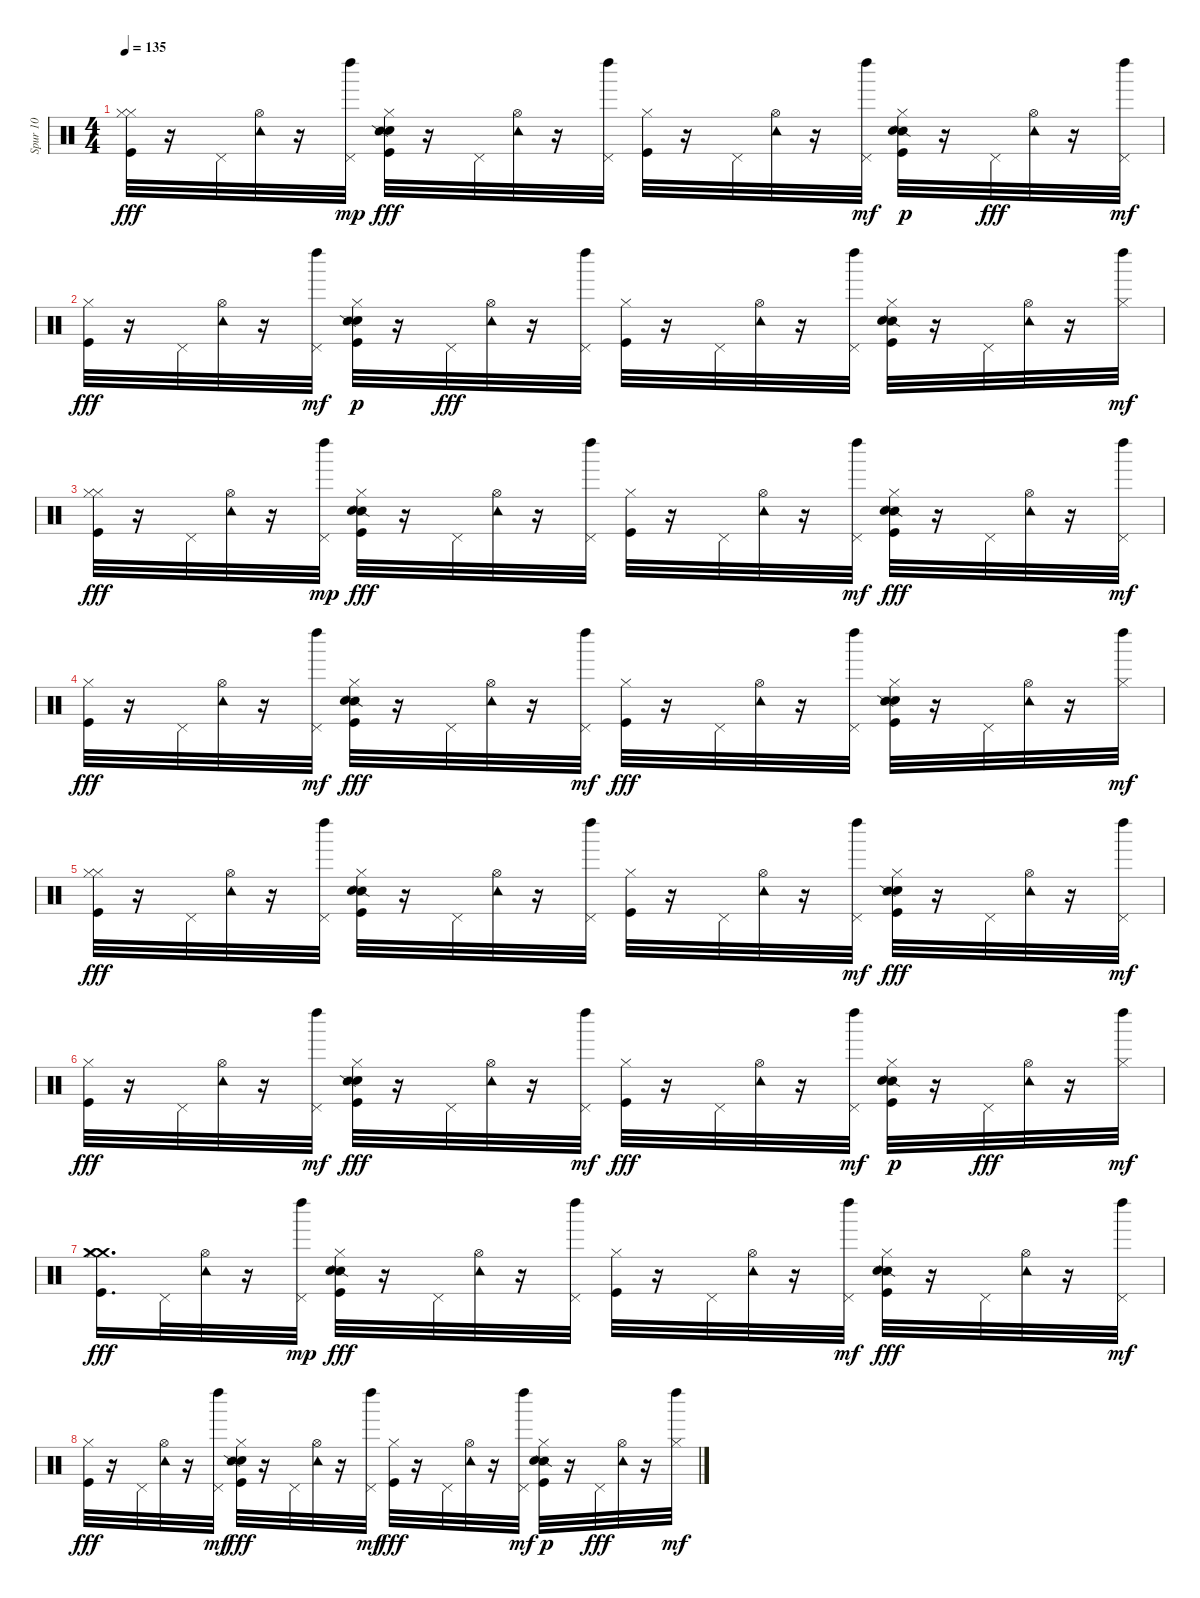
\track ("Spur 10" "Spur 10") {instrument percussion}
\staff {score}
\articulation defaults
\ts (4 4)
\tempo 135
\clef neutral
\ks c
("Kick (hit)" "Hi-Hat (closed)" "Hi-Hat (closed)").32{dy fff} r.16 "Pedal Hi-Hat (hit)".32 ("Tambourine (hit)" "Hi-Hat (open)").32 r.16 ("Pedal Hi-Hat (hit)" "Left Maraca (hit)").32{dy mp} ("Hand Clap (hit)" "Kick (hit)" "Hi-Hat (closed)" "Snare (side stick) 2").32{dy fff} r.16 "Pedal Hi-Hat (hit)".32 ("Tambourine (hit)" "Hi-Hat (open)").32 r.16 ("Left Maraca (hit)" "Pedal Hi-Hat (hit)").32 ("Kick (hit)" "Hi-Hat (closed)").32 r.16 "Pedal Hi-Hat (hit)".32 ("Tambourine (hit)" "Hi-Hat (open)").32 r.16 ("Left Maraca (hit)" "Pedal Hi-Hat (hit)").32{dy mf} ("Hi-Hat (closed)" "Snare (side stick) 2" "Kick (hit)" "Hand Clap (hit)").32{dy p} r.16 "Pedal Hi-Hat (hit)".32{dy fff} ("Hi-Hat (open)" "Tambourine (hit)").32 r.16 ("Pedal Hi-Hat (hit)" "Left Maraca (hit)").32{dy mf} |
("Kick (hit)" "Hi-Hat (closed)").32{dy fff} r.16 "Pedal Hi-Hat (hit)".32 ("Tambourine (hit)" "Hi-Hat (open)").32 r.16 ("Pedal Hi-Hat (hit)" "Left Maraca (hit)").32{dy mf} ("Kick (hit)" "Hi-Hat (closed)" "Hand Clap (hit)" "Snare (side stick) 2").32{dy p} r.16 "Pedal Hi-Hat (hit)".32{dy fff} ("Tambourine (hit)" "Hi-Hat (open)").32 r.16 ("Left Maraca (hit)" "Pedal Hi-Hat (hit)").32 ("Kick (hit)" "Hi-Hat (closed)").32 r.16 "Pedal Hi-Hat (hit)".32 ("Hi-Hat (open)" "Tambourine (hit)").32 r.16 ("Left Maraca (hit)" "Pedal Hi-Hat (hit)").32 ("Hi-Hat (closed)" "Snare (side stick) 2" "Hand Clap (hit)" "Kick (hit)").32 r.16 "Pedal Hi-Hat (hit)".32 ("Hi-Hat (open)" "Tambourine (hit)").32 r.16 ("Left Maraca (hit)" "Hi-Hat (closed)").32{dy mf} |
("Hi-Hat (closed)" "Kick (hit)" "Hi-Hat (closed)").32{dy fff} r.16 "Pedal Hi-Hat (hit)".32 ("Tambourine (hit)" "Hi-Hat (open)").32 r.16 ("Pedal Hi-Hat (hit)" "Left Maraca (hit)").32{dy mp} ("Hi-Hat (closed)" "Snare (side stick) 2" "Hand Clap (hit)" "Kick (hit)").32{dy fff} r.16 "Pedal Hi-Hat (hit)".32 ("Tambourine (hit)" "Hi-Hat (open)").32 r.16 ("Left Maraca (hit)" "Pedal Hi-Hat (hit)").32 ("Kick (hit)" "Hi-Hat (closed)").32 r.16 "Pedal Hi-Hat (hit)".32 ("Hi-Hat (open)" "Tambourine (hit)").32 r.16 ("Pedal Hi-Hat (hit)" "Left Maraca (hit)").32{dy mf} ("Hi-Hat (closed)" "Snare (side stick) 2" "Hand Clap (hit)" "Kick (hit)").32{dy fff} r.16 "Pedal Hi-Hat (hit)".32 ("Tambourine (hit)" "Hi-Hat (open)").32 r.16 ("Left Maraca (hit)" "Pedal Hi-Hat (hit)").32{dy mf} |
("Kick (hit)" "Hi-Hat (closed)").32{dy fff} r.16 "Pedal Hi-Hat (hit)".32 ("Tambourine (hit)" "Hi-Hat (open)").32 r.16 ("Pedal Hi-Hat (hit)" "Left Maraca (hit)").32{dy mf} ("Snare (side stick) 2" "Hand Clap (hit)" "Kick (hit)" "Hi-Hat (closed)").32{dy fff} r.16 "Pedal Hi-Hat (hit)".32 ("Hi-Hat (open)" "Tambourine (hit)").32 r.16 ("Pedal Hi-Hat (hit)" "Left Maraca (hit)").32{dy mf} ("Hi-Hat (closed)" "Kick (hit)").32{dy fff} r.16 "Pedal Hi-Hat (hit)".32 ("Hi-Hat (open)" "Tambourine (hit)").32 r.16 ("Left Maraca (hit)" "Pedal Hi-Hat (hit)").32 ("Hand Clap (hit)" "Snare (side stick) 2" "Kick (hit)" "Hi-Hat (closed)").32 r.16 "Pedal Hi-Hat (hit)".32 ("Hi-Hat (open)" "Tambourine (hit)").32 r.16 ("Hi-Hat (closed)" "Left Maraca (hit)").32{dy mf} |
("Hi-Hat (closed)" "Kick (hit)" "Hi-Hat (closed)").32{dy fff} r.16 "Pedal Hi-Hat (hit)".32 ("Hi-Hat (open)" "Tambourine (hit)").32 r.16 ("Left Maraca (hit)" "Pedal Hi-Hat (hit)").32 ("Snare (side stick) 2" "Hand Clap (hit)" "Kick (hit)" "Hi-Hat (closed)").32 r.16 "Pedal Hi-Hat (hit)".32 ("Tambourine (hit)" "Hi-Hat (open)").32 r.16 ("Left Maraca (hit)" "Pedal Hi-Hat (hit)").32 ("Kick (hit)" "Hi-Hat (closed)").32 r.16 "Pedal Hi-Hat (hit)".32 ("Hi-Hat (open)" "Tambourine (hit)").32 r.16 ("Left Maraca (hit)" "Pedal Hi-Hat (hit)").32{dy mf} ("Hand Clap (hit)" "Kick (hit)" "Hi-Hat (closed)" "Snare (side stick) 2").32{dy fff} r.16 "Pedal Hi-Hat (hit)".32 ("Hi-Hat (open)" "Tambourine (hit)").32 r.16 ("Pedal Hi-Hat (hit)" "Left Maraca (hit)").32{dy mf} |
("Kick (hit)" "Hi-Hat (closed)").32{dy fff} r.16 "Pedal Hi-Hat (hit)".32 ("Tambourine (hit)" "Hi-Hat (open)").32 r.16 ("Pedal Hi-Hat (hit)" "Left Maraca (hit)").32{dy mf} ("Hi-Hat (closed)" "Hand Clap (hit)" "Snare (side stick) 2" "Kick (hit)").32{dy fff} r.16 "Pedal Hi-Hat (hit)".32 ("Hi-Hat (open)" "Tambourine (hit)").32 r.16 ("Pedal Hi-Hat (hit)" "Left Maraca (hit)").32{dy mf} ("Hi-Hat (closed)" "Kick (hit)").32{dy fff} r.16 "Pedal Hi-Hat (hit)".32 ("Hi-Hat (open)" "Tambourine (hit)").32 r.16 ("Pedal Hi-Hat (hit)" "Left Maraca (hit)").32{dy mf} ("Kick (hit)" "Hi-Hat (closed)" "Snare (side stick) 2" "Hand Clap (hit)").32{dy p} r.16 "Pedal Hi-Hat (hit)".32{dy fff} ("Tambourine (hit)" "Hi-Hat (open)").32 r.16 ("Hi-Hat (closed)" "Left Maraca (hit)").32{dy mf} |
("Crash medium (hit)" "Hi-Hat (closed)" "Kick (hit)" "Crash medium (hit)").16{d dy fff} "Pedal Hi-Hat (hit)".32 ("Tambourine (hit)" "Hi-Hat (open)").32 r.16 ("Pedal Hi-Hat (hit)" "Left Maraca (hit)").32{dy mp} ("Snare (side stick) 2" "Hand Clap (hit)" "Kick (hit)" "Hi-Hat (closed)").32{dy fff} r.16 "Pedal Hi-Hat (hit)".32 ("Tambourine (hit)" "Hi-Hat (open)").32 r.16 ("Left Maraca (hit)" "Pedal Hi-Hat (hit)").32 ("Hi-Hat (closed)" "Kick (hit)").32 r.16 "Pedal Hi-Hat (hit)".32 ("Hi-Hat (open)" "Tambourine (hit)").32 r.16 ("Left Maraca (hit)" "Pedal Hi-Hat (hit)").32{dy mf} ("Snare (side stick) 2" "Hand Clap (hit)" "Kick (hit)" "Hi-Hat (closed)").32{dy fff} r.16 "Pedal Hi-Hat (hit)".32 ("Hi-Hat (open)" "Tambourine (hit)").32 r.16 ("Pedal Hi-Hat (hit)" "Left Maraca (hit)").32{dy mf} |
("Hi-Hat (closed)" "Kick (hit)").32{dy fff} r.16 "Pedal Hi-Hat (hit)".32 ("Tambourine (hit)" "Hi-Hat (open)").32 r.16 ("Pedal Hi-Hat (hit)" "Left Maraca (hit)").32{dy mf} ("Hand Clap (hit)" "Kick (hit)" "Snare (side stick) 2" "Hi-Hat (closed)").32{dy fff} r.16 "Pedal Hi-Hat (hit)".32 ("Hi-Hat (open)" "Tambourine (hit)").32 r.16 ("Pedal Hi-Hat (hit)" "Left Maraca (hit)").32{dy mf} ("Hi-Hat (closed)" "Kick (hit)").32{dy fff} r.16 "Pedal Hi-Hat (hit)".32 ("Hi-Hat (open)" "Tambourine (hit)").32 r.16 ("Pedal Hi-Hat (hit)" "Left Maraca (hit)").32{dy mf} ("Snare (side stick) 2" "Kick (hit)" "Hi-Hat (closed)" "Hand Clap (hit)").32{dy p} r.16 "Pedal Hi-Hat (hit)".32{dy fff} ("Hi-Hat (open)" "Tambourine (hit)").32 r.16 ("Left Maraca (hit)" "Hi-Hat (closed)").32{dy mf}
